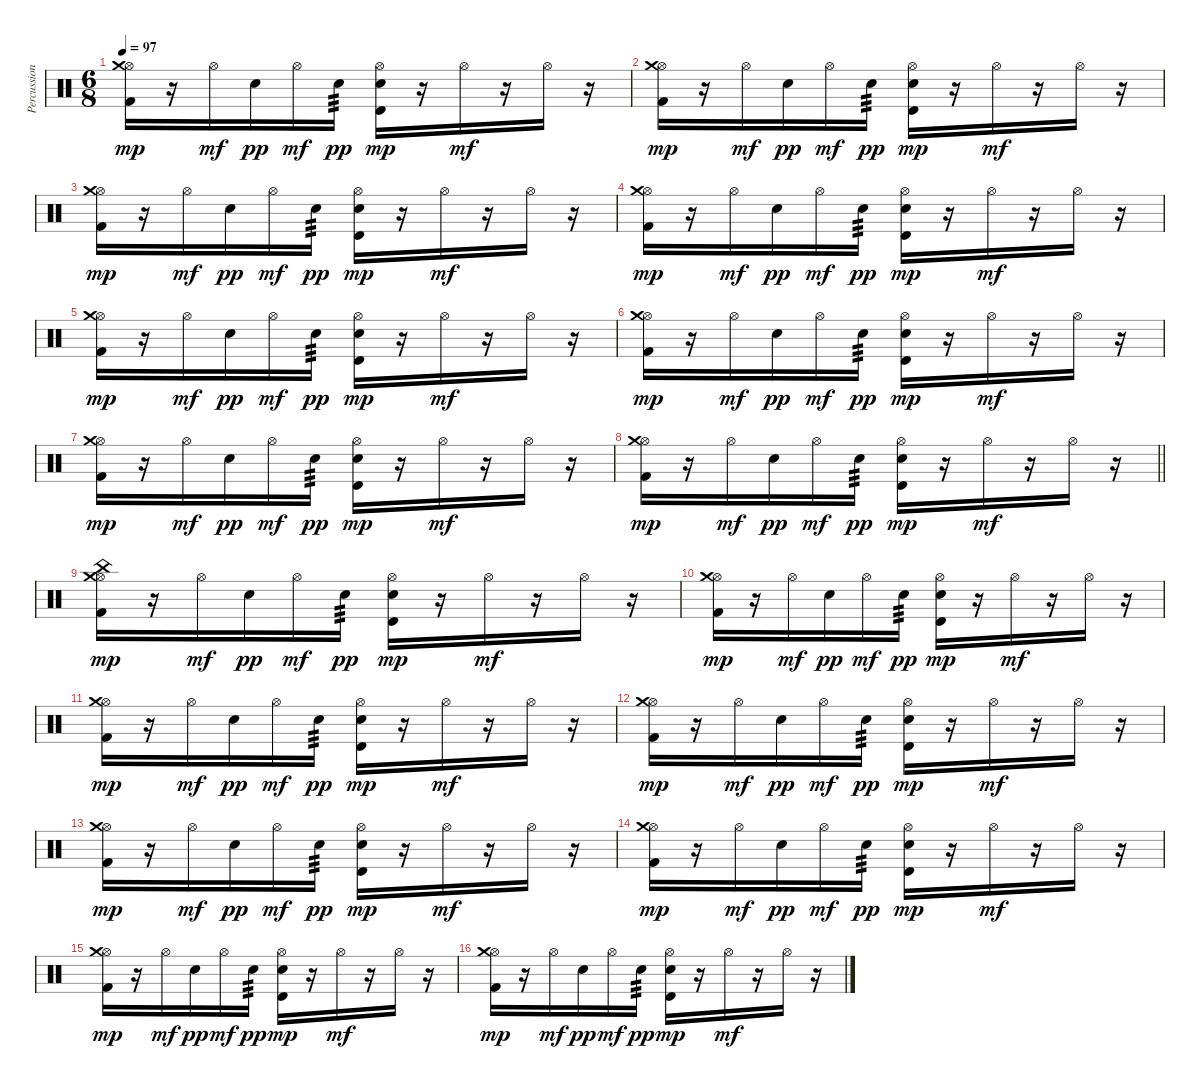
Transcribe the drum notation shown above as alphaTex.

\track ("Percussion" "Percussion") {instrument percussion}
\staff {score}
\articulation defaults
\ts (6 8)
\tempo 97
\clef neutral
\ks c
("Hi-Hat (open)" "Crash medium (hit)" "Kick (hit) 2").16{dy mp} r.16 "Hi-Hat (open)".16{dy mf} "Electric Snare (hit)".16{dy pp} "Hi-Hat (open)".16{dy mf} "Electric Snare (hit)".16{tp 3 dy pp} ("Hi-Hat (open)" "Timbale high (hit)" "Electric Snare (hit)").16{dy mp} r.16 "Hi-Hat (open)".16{dy mf} r.16 "Hi-Hat (open)".16 r.16 |
("Hi-Hat (open)" "Crash medium (hit)" "Kick (hit) 2").16{dy mp} r.16 "Hi-Hat (open)".16{dy mf} "Electric Snare (hit)".16{dy pp} "Hi-Hat (open)".16{dy mf} "Electric Snare (hit)".16{tp 3 dy pp} ("Hi-Hat (open)" "Timbale high (hit)" "Electric Snare (hit)").16{dy mp} r.16 "Hi-Hat (open)".16{dy mf} r.16 "Hi-Hat (open)".16 r.16 |
("Hi-Hat (open)" "Crash medium (hit)" "Kick (hit) 2").16{dy mp} r.16 "Hi-Hat (open)".16{dy mf} "Electric Snare (hit)".16{dy pp} "Hi-Hat (open)".16{dy mf} "Electric Snare (hit)".16{tp 3 dy pp} ("Hi-Hat (open)" "Timbale high (hit)" "Electric Snare (hit)").16{dy mp} r.16 "Hi-Hat (open)".16{dy mf} r.16 "Hi-Hat (open)".16 r.16 |
("Hi-Hat (open)" "Crash medium (hit)" "Kick (hit) 2").16{dy mp} r.16 "Hi-Hat (open)".16{dy mf} "Electric Snare (hit)".16{dy pp} "Hi-Hat (open)".16{dy mf} "Electric Snare (hit)".16{tp 3 dy pp} ("Hi-Hat (open)" "Timbale high (hit)" "Electric Snare (hit)").16{dy mp} r.16 "Hi-Hat (open)".16{dy mf} r.16 "Hi-Hat (open)".16 r.16 |
("Hi-Hat (open)" "Crash medium (hit)" "Kick (hit) 2").16{dy mp} r.16 "Hi-Hat (open)".16{dy mf} "Electric Snare (hit)".16{dy pp} "Hi-Hat (open)".16{dy mf} "Electric Snare (hit)".16{tp 3 dy pp} ("Hi-Hat (open)" "Timbale high (hit)" "Electric Snare (hit)").16{dy mp} r.16 "Hi-Hat (open)".16{dy mf} r.16 "Hi-Hat (open)".16 r.16 |
("Hi-Hat (open)" "Crash medium (hit)" "Kick (hit) 2").16{dy mp} r.16 "Hi-Hat (open)".16{dy mf} "Electric Snare (hit)".16{dy pp} "Hi-Hat (open)".16{dy mf} "Electric Snare (hit)".16{tp 3 dy pp} ("Hi-Hat (open)" "Timbale high (hit)" "Electric Snare (hit)").16{dy mp} r.16 "Hi-Hat (open)".16{dy mf} r.16 "Hi-Hat (open)".16 r.16 |
("Hi-Hat (open)" "Crash medium (hit)" "Kick (hit) 2").16{dy mp} r.16 "Hi-Hat (open)".16{dy mf} "Electric Snare (hit)".16{dy pp} "Hi-Hat (open)".16{dy mf} "Electric Snare (hit)".16{tp 3 dy pp} ("Hi-Hat (open)" "Timbale high (hit)" "Electric Snare (hit)").16{dy mp} r.16 "Hi-Hat (open)".16{dy mf} r.16 "Hi-Hat (open)".16 r.16 |
\barLineRight lightlight
("Hi-Hat (open)" "Crash medium (hit)" "Kick (hit) 2").16{dy mp} r.16 "Hi-Hat (open)".16{dy mf} "Electric Snare (hit)".16{dy pp} "Hi-Hat (open)".16{dy mf} "Electric Snare (hit)".16{tp 3 dy pp} ("Hi-Hat (open)" "Timbale high (hit)" "Electric Snare (hit)").16{dy mp} r.16 "Hi-Hat (open)".16{dy mf} r.16 "Hi-Hat (open)".16 r.16 |
("Hi-Hat (open)" "Crash medium (hit)" "China (hit)" "Kick (hit) 2").16{dy mp} r.16 "Hi-Hat (open)".16{dy mf} "Electric Snare (hit)".16{dy pp} "Hi-Hat (open)".16{dy mf} "Electric Snare (hit)".16{tp 3 dy pp} ("Hi-Hat (open)" "Timbale high (hit)" "Electric Snare (hit)").16{dy mp} r.16 "Hi-Hat (open)".16{dy mf} r.16 "Hi-Hat (open)".16 r.16 |
("Hi-Hat (open)" "Crash medium (hit)" "Kick (hit) 2").16{dy mp} r.16 "Hi-Hat (open)".16{dy mf} "Electric Snare (hit)".16{dy pp} "Hi-Hat (open)".16{dy mf} "Electric Snare (hit)".16{tp 3 dy pp} ("Hi-Hat (open)" "Timbale high (hit)" "Electric Snare (hit)").16{dy mp} r.16 "Hi-Hat (open)".16{dy mf} r.16 "Hi-Hat (open)".16 r.16 |
("Hi-Hat (open)" "Crash medium (hit)" "Kick (hit) 2").16{dy mp} r.16 "Hi-Hat (open)".16{dy mf} "Electric Snare (hit)".16{dy pp} "Hi-Hat (open)".16{dy mf} "Electric Snare (hit)".16{tp 3 dy pp} ("Hi-Hat (open)" "Timbale high (hit)" "Electric Snare (hit)").16{dy mp} r.16 "Hi-Hat (open)".16{dy mf} r.16 "Hi-Hat (open)".16 r.16 |
("Hi-Hat (open)" "Crash medium (hit)" "Kick (hit) 2").16{dy mp} r.16 "Hi-Hat (open)".16{dy mf} "Electric Snare (hit)".16{dy pp} "Hi-Hat (open)".16{dy mf} "Electric Snare (hit)".16{tp 3 dy pp} ("Hi-Hat (open)" "Timbale high (hit)" "Electric Snare (hit)").16{dy mp} r.16 "Hi-Hat (open)".16{dy mf} r.16 "Hi-Hat (open)".16 r.16 |
("Hi-Hat (open)" "Crash medium (hit)" "Kick (hit) 2").16{dy mp} r.16 "Hi-Hat (open)".16{dy mf} "Electric Snare (hit)".16{dy pp} "Hi-Hat (open)".16{dy mf} "Electric Snare (hit)".16{tp 3 dy pp} ("Hi-Hat (open)" "Timbale high (hit)" "Electric Snare (hit)").16{dy mp} r.16 "Hi-Hat (open)".16{dy mf} r.16 "Hi-Hat (open)".16 r.16 |
("Hi-Hat (open)" "Crash medium (hit)" "Kick (hit) 2").16{dy mp} r.16 "Hi-Hat (open)".16{dy mf} "Electric Snare (hit)".16{dy pp} "Hi-Hat (open)".16{dy mf} "Electric Snare (hit)".16{tp 3 dy pp} ("Hi-Hat (open)" "Timbale high (hit)" "Electric Snare (hit)").16{dy mp} r.16 "Hi-Hat (open)".16{dy mf} r.16 "Hi-Hat (open)".16 r.16 |
("Hi-Hat (open)" "Crash medium (hit)" "Kick (hit) 2").16{dy mp} r.16 "Hi-Hat (open)".16{dy mf} "Electric Snare (hit)".16{dy pp} "Hi-Hat (open)".16{dy mf} "Electric Snare (hit)".16{tp 3 dy pp} ("Hi-Hat (open)" "Timbale high (hit)" "Electric Snare (hit)").16{dy mp} r.16 "Hi-Hat (open)".16{dy mf} r.16 "Hi-Hat (open)".16 r.16 |
("Hi-Hat (open)" "Crash medium (hit)" "Kick (hit) 2").16{dy mp} r.16 "Hi-Hat (open)".16{dy mf} "Electric Snare (hit)".16{dy pp} "Hi-Hat (open)".16{dy mf} "Electric Snare (hit)".16{tp 3 dy pp} ("Hi-Hat (open)" "Timbale high (hit)" "Electric Snare (hit)").16{dy mp} r.16 "Hi-Hat (open)".16{dy mf} r.16 "Hi-Hat (open)".16 r.16
